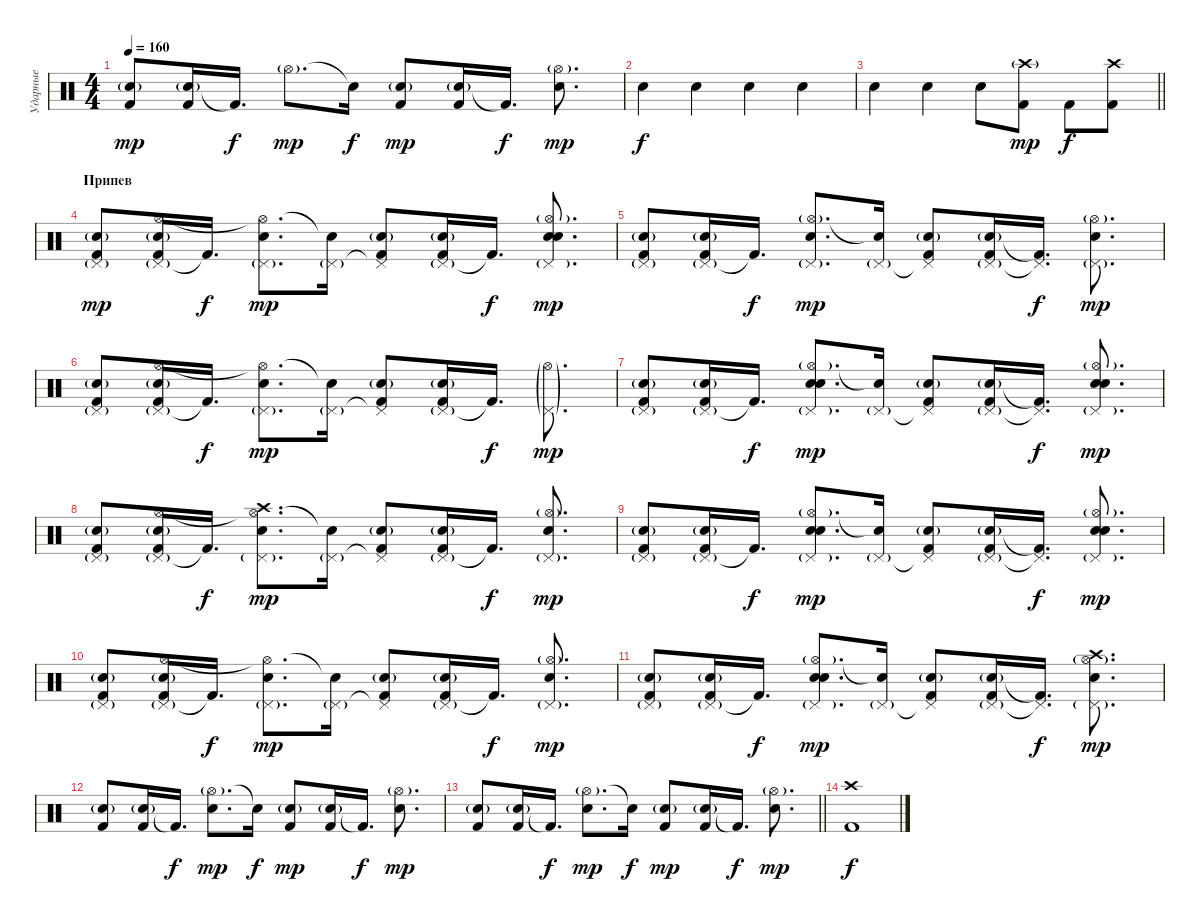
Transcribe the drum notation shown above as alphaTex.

\track ("Ударные" "Ударные") {instrument percussion}
\staff {score}
\articulation defaults
\ts (4 4)
\tempo 160
\clef neutral
\ks c
("Snare (hit) 2"{g} "Kick (hit) 2").8{dy mp} ("Snare (hit) 2"{g} "Kick (hit) 2").16 "Kick (hit) 2"{t}.16{d dy f} "Hi-Hat (open)"{g}.8{d dy mp} "Electric Snare (hit)"{t}.16{dy f} ("Snare (hit) 2"{g} "Kick (hit) 2").8{dy mp} ("Snare (hit) 2"{g} "Kick (hit) 2").16 "Kick (hit) 2"{t}.16{d dy f} ("Hi-Hat (open)"{g} "Electric Snare (hit)").8{d dy mp} |
"Electric Snare (hit)".4{dy f} "Electric Snare (hit)".4 "Electric Snare (hit)".4 "Electric Snare (hit)".4 |
\barLineRight lightlight "Electric Snare (hit)".4 "Electric Snare (hit)".4 "Electric Snare (hit)".8
("Crash high (hit)"{g} "Kick (hit) 2").8{dy mp} "Kick (hit) 2".8{dy f} ("Crash high (hit)" "Kick (hit) 2").8 |
\section ("" "Припев")
("Pedal Hi-Hat (hit)"{g} "Snare (hit) 2"{g} "Kick (hit) 2").8{dy mp} ("Pedal Hi-Hat (hit)"{g} "Hi-Hat (open)" "Snare (hit) 2"{g} "Kick (hit) 2").16 "Kick (hit) 2"{t}.16{d dy f} ("Pedal Hi-Hat (hit)"{g} "Hi-Hat (open)"{t} "Electric Snare (hit)").8{d dy mp} ("Pedal Hi-Hat (hit)"{g} "Electric Snare (hit)"{t}).16 ("Pedal Hi-Hat (hit)"{t} "Snare (hit) 2"{g} "Kick (hit) 2").8 ("Pedal Hi-Hat (hit)"{g} "Snare (hit) 2"{g} "Kick (hit) 2").16 "Kick (hit) 2"{t}.16{d dy f} ("Hi-Hat (open)"{g} "Pedal Hi-Hat (hit)"{g} "Electric Snare (hit)" "Snare (hit) 2").8{d dy mp} |
("Pedal Hi-Hat (hit)"{g} "Snare (hit) 2"{g} "Kick (hit) 2").8 ("Pedal Hi-Hat (hit)"{g} "Snare (hit) 2"{g} "Kick (hit) 2").16 "Kick (hit) 2"{t}.16{d dy f} ("Pedal Hi-Hat (hit)"{g} "Hi-Hat (open)"{g} "Snare (hit) 2").8{d dy mp} ("Pedal Hi-Hat (hit)"{g} "Electric Snare (hit)"{t}).16 ("Pedal Hi-Hat (hit)"{t} "Snare (hit) 2"{g} "Kick (hit) 2").8 ("Pedal Hi-Hat (hit)"{g} "Snare (hit) 2"{g} "Kick (hit) 2").16 ("Pedal Hi-Hat (hit)"{t} "Kick (hit) 2"{t}).16{d dy f} ("Hi-Hat (open)"{g} "Pedal Hi-Hat (hit)"{g} "Electric Snare (hit)").8{d dy mp} |
("Pedal Hi-Hat (hit)"{g} "Snare (hit) 2"{g} "Kick (hit) 2").8 ("Pedal Hi-Hat (hit)"{g} "Hi-Hat (open)" "Snare (hit) 2"{g} "Kick (hit) 2").16 "Kick (hit) 2"{t}.16{d dy f} ("Pedal Hi-Hat (hit)"{g} "Hi-Hat (open)"{t} "Electric Snare (hit)").8{d dy mp} ("Pedal Hi-Hat (hit)"{g} "Electric Snare (hit)"{t}).16 ("Pedal Hi-Hat (hit)"{t} "Snare (hit) 2"{g} "Kick (hit) 2").8 ("Pedal Hi-Hat (hit)"{g} "Snare (hit) 2"{g} "Kick (hit) 2").16 "Kick (hit) 2"{t}.16{d dy f} ("Hi-Hat (open)"{g} "Pedal Hi-Hat (hit)"{g}).8{d dy mp} |
("Pedal Hi-Hat (hit)"{g} "Snare (hit) 2"{g} "Kick (hit) 2").8 ("Pedal Hi-Hat (hit)"{g} "Snare (hit) 2"{g} "Kick (hit) 2").16 "Kick (hit) 2"{t}.16{d dy f} ("Pedal Hi-Hat (hit)"{g} "Hi-Hat (open)"{g} "Electric Snare (hit)" "Snare (hit) 2").8{d dy mp} ("Pedal Hi-Hat (hit)"{g} "Electric Snare (hit)"{t}).16 ("Pedal Hi-Hat (hit)"{t} "Snare (hit) 2"{g} "Kick (hit) 2").8 ("Pedal Hi-Hat (hit)"{g} "Snare (hit) 2"{g} "Kick (hit) 2").16 ("Pedal Hi-Hat (hit)"{t} "Kick (hit) 2"{t}).16{d dy f} ("Hi-Hat (open)"{g} "Pedal Hi-Hat (hit)"{g} "Snare (hit) 2" "Electric Snare (hit)").8{d dy mp} |
("Pedal Hi-Hat (hit)"{g} "Snare (hit) 2"{g} "Kick (hit) 2").8 ("Pedal Hi-Hat (hit)"{g} "Hi-Hat (open)" "Snare (hit) 2"{g} "Kick (hit) 2").16 "Kick (hit) 2"{t}.16{d dy f} ("Pedal Hi-Hat (hit)"{g} "Hi-Hat (open)"{t} "Crash high (hit)" "Electric Snare (hit)").8{d dy mp} ("Pedal Hi-Hat (hit)"{g} "Electric Snare (hit)"{t}).16 ("Pedal Hi-Hat (hit)"{t} "Snare (hit) 2"{g} "Kick (hit) 2").8 ("Pedal Hi-Hat (hit)"{g} "Snare (hit) 2"{g} "Kick (hit) 2").16 "Kick (hit) 2"{t}.16{d dy f} ("Hi-Hat (open)"{g} "Pedal Hi-Hat (hit)"{g} "Snare (hit) 2").8{d dy mp} |
("Pedal Hi-Hat (hit)"{g} "Snare (hit) 2"{g} "Kick (hit) 2").8 ("Pedal Hi-Hat (hit)"{g} "Snare (hit) 2"{g} "Kick (hit) 2").16 "Kick (hit) 2"{t}.16{d dy f} ("Pedal Hi-Hat (hit)"{g} "Hi-Hat (open)"{g} "Electric Snare (hit)" "Snare (hit) 2").8{d dy mp} ("Pedal Hi-Hat (hit)"{g} "Electric Snare (hit)"{t}).16 ("Pedal Hi-Hat (hit)"{t} "Snare (hit) 2"{g} "Kick (hit) 2").8 ("Pedal Hi-Hat (hit)"{g} "Snare (hit) 2"{g} "Kick (hit) 2").16 ("Pedal Hi-Hat (hit)"{t} "Kick (hit) 2"{t}).16{d dy f} ("Hi-Hat (open)"{g} "Pedal Hi-Hat (hit)"{g} "Snare (hit) 2" "Electric Snare (hit)").8{d dy mp} |
("Pedal Hi-Hat (hit)"{g} "Snare (hit) 2"{g} "Kick (hit) 2").8 ("Pedal Hi-Hat (hit)"{g} "Hi-Hat (open)" "Snare (hit) 2"{g} "Kick (hit) 2").16 "Kick (hit) 2"{t}.16{d dy f} ("Pedal Hi-Hat (hit)"{g} "Hi-Hat (open)"{t} "Electric Snare (hit)").8{d dy mp} ("Pedal Hi-Hat (hit)"{g} "Electric Snare (hit)"{t}).16 ("Pedal Hi-Hat (hit)"{t} "Snare (hit) 2"{g} "Kick (hit) 2").8 ("Pedal Hi-Hat (hit)"{g} "Snare (hit) 2"{g} "Kick (hit) 2").16 "Kick (hit) 2"{t}.16{d dy f} ("Hi-Hat (open)"{g} "Pedal Hi-Hat (hit)"{g} "Snare (hit) 2").8{d dy mp} |
("Pedal Hi-Hat (hit)"{g} "Snare (hit) 2"{g} "Kick (hit) 2").8 ("Pedal Hi-Hat (hit)"{g} "Snare (hit) 2"{g} "Kick (hit) 2").16 "Kick (hit) 2"{t}.16{d dy f} ("Pedal Hi-Hat (hit)"{g} "Hi-Hat (open)"{g} "Electric Snare (hit)" "Snare (hit) 2").8{d dy mp} ("Pedal Hi-Hat (hit)"{g} "Electric Snare (hit)"{t}).16 ("Pedal Hi-Hat (hit)"{t} "Snare (hit) 2"{g} "Kick (hit) 2").8 ("Pedal Hi-Hat (hit)"{g} "Snare (hit) 2"{g} "Kick (hit) 2").16 ("Pedal Hi-Hat (hit)"{t} "Kick (hit) 2"{t}).16{d dy f} ("Hi-Hat (open)"{g} "Pedal Hi-Hat (hit)"{g} "Crash high (hit)" "Electric Snare (hit)").8{d dy mp} |
("Snare (hit) 2"{g} "Kick (hit) 2").8 ("Snare (hit) 2"{g} "Kick (hit) 2").16 "Kick (hit) 2"{t}.16{d dy f} ("Hi-Hat (open)"{g} "Snare (hit) 2").8{d dy mp} "Electric Snare (hit)"{t}.16{dy f} ("Snare (hit) 2"{g} "Kick (hit) 2").8{dy mp} ("Snare (hit) 2"{g} "Kick (hit) 2").16 "Kick (hit) 2"{t}.16{d dy f} ("Hi-Hat (open)"{g} "Electric Snare (hit)").8{d dy mp} |
\barLineRight lightlight
("Snare (hit) 2"{g} "Kick (hit) 2").8 ("Snare (hit) 2"{g} "Kick (hit) 2").16 "Kick (hit) 2"{t}.16{d dy f} ("Hi-Hat (open)"{g} "Snare (hit) 2").8{d dy mp} "Electric Snare (hit)"{t}.16{dy f} ("Snare (hit) 2"{g} "Kick (hit) 2").8{dy mp} ("Snare (hit) 2"{g} "Kick (hit) 2").16 "Kick (hit) 2"{t}.16{d dy f} ("Hi-Hat (open)"{g} "Electric Snare (hit)").8{d dy mp} |
("Kick (hit) 2" "Crash high (hit)").1{dy f}
